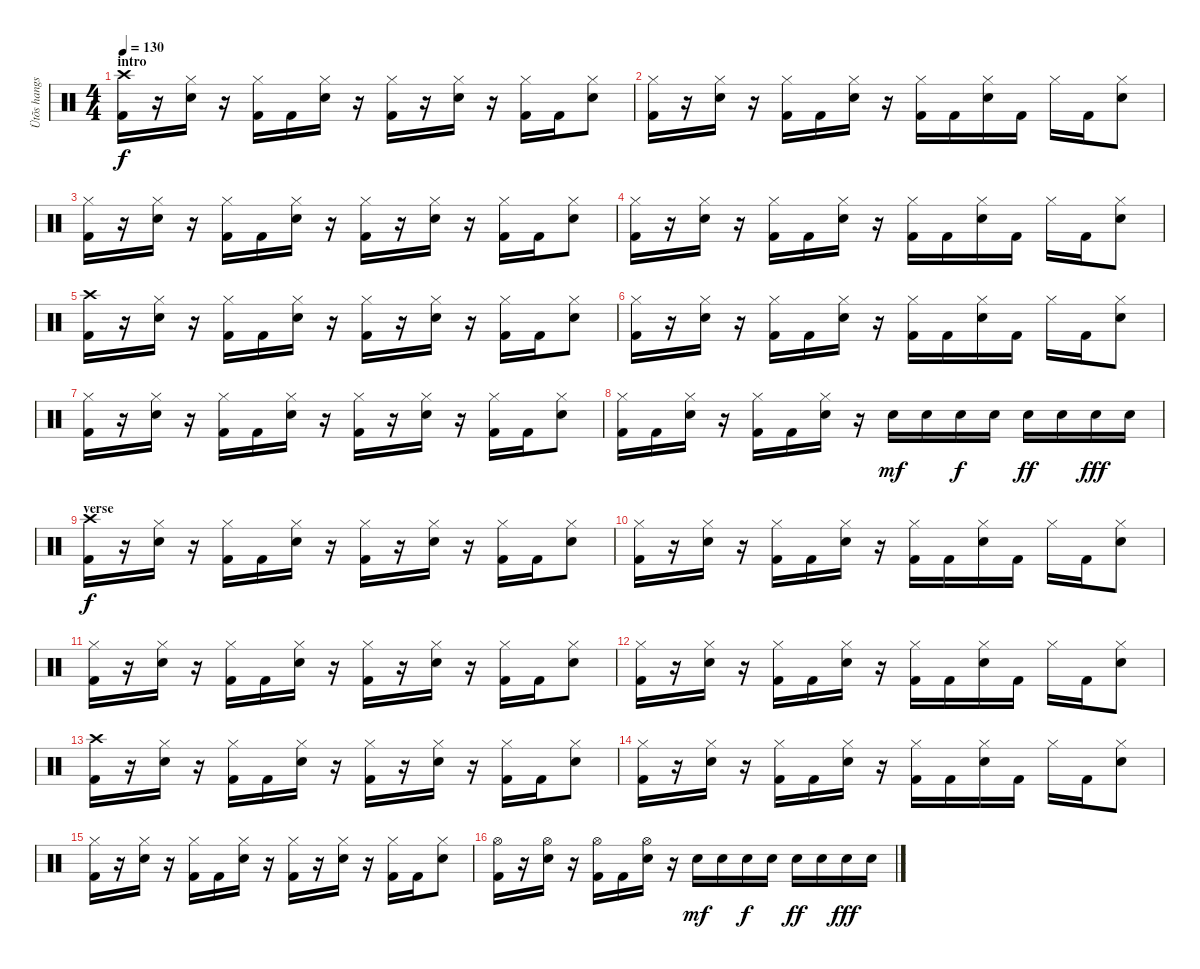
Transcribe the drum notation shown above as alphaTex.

\track ("Ütõs hangszer" "Ütõs hangs") {instrument percussion}
\staff {score}
\articulation defaults
\ts (4 4)
\section ("" "intro")
\tempo 130
\clef neutral
\ks c
("Crash high (hit)" "Kick (hit) 2").16{dy f} r.16 ("Hi-Hat (closed)" "Snare (hit) 2").16 r.16 ("Hi-Hat (closed)" "Kick (hit) 2").16 "Kick (hit) 2".16 ("Hi-Hat (closed)" "Snare (hit) 2").16 r.16 ("Hi-Hat (closed)" "Kick (hit) 2").16 r.16 ("Hi-Hat (closed)" "Snare (hit) 2").16 r.16 ("Hi-Hat (closed)" "Kick (hit) 2").16 "Kick (hit) 2".16 ("Hi-Hat (closed)" "Snare (hit) 2").8 |
("Hi-Hat (closed)" "Kick (hit) 2").16 r.16 ("Hi-Hat (closed)" "Snare (hit) 2").16 r.16 ("Hi-Hat (closed)" "Kick (hit) 2").16 "Kick (hit) 2".16 ("Hi-Hat (closed)" "Snare (hit) 2").16 r.16 ("Hi-Hat (closed)" "Kick (hit) 2").16 "Kick (hit) 2".16 ("Hi-Hat (closed)" "Snare (hit) 2").16 "Kick (hit) 2".16 "Hi-Hat (closed)".16 "Kick (hit) 2".16 ("Hi-Hat (closed)" "Snare (hit) 2").8 |
("Hi-Hat (closed)" "Kick (hit) 2").16 r.16 ("Hi-Hat (closed)" "Snare (hit) 2").16 r.16 ("Hi-Hat (closed)" "Kick (hit) 2").16 "Kick (hit) 2".16 ("Hi-Hat (closed)" "Snare (hit) 2").16 r.16 ("Hi-Hat (closed)" "Kick (hit) 2").16 r.16 ("Hi-Hat (closed)" "Snare (hit) 2").16 r.16 ("Hi-Hat (closed)" "Kick (hit) 2").16 "Kick (hit) 2".16 ("Hi-Hat (closed)" "Snare (hit) 2").8 |
("Hi-Hat (closed)" "Kick (hit) 2").16 r.16 ("Hi-Hat (closed)" "Snare (hit) 2").16 r.16 ("Hi-Hat (closed)" "Kick (hit) 2").16 "Kick (hit) 2".16 ("Hi-Hat (closed)" "Snare (hit) 2").16 r.16 ("Hi-Hat (closed)" "Kick (hit) 2").16 "Kick (hit) 2".16 ("Hi-Hat (closed)" "Snare (hit) 2").16 "Kick (hit) 2".16 "Hi-Hat (closed)".16 "Kick (hit) 2".16 ("Hi-Hat (closed)" "Snare (hit) 2").8 |
("Crash high (hit)" "Kick (hit) 2").16 r.16 ("Hi-Hat (closed)" "Snare (hit) 2").16 r.16 ("Hi-Hat (closed)" "Kick (hit) 2").16 "Kick (hit) 2".16 ("Hi-Hat (closed)" "Snare (hit) 2").16 r.16 ("Hi-Hat (closed)" "Kick (hit) 2").16 r.16 ("Hi-Hat (closed)" "Snare (hit) 2").16 r.16 ("Hi-Hat (closed)" "Kick (hit) 2").16 "Kick (hit) 2".16 ("Hi-Hat (closed)" "Snare (hit) 2").8 |
("Hi-Hat (closed)" "Kick (hit) 2").16 r.16 ("Hi-Hat (closed)" "Snare (hit) 2").16 r.16 ("Hi-Hat (closed)" "Kick (hit) 2").16 "Kick (hit) 2".16 ("Hi-Hat (closed)" "Snare (hit) 2").16 r.16 ("Hi-Hat (closed)" "Kick (hit) 2").16 "Kick (hit) 2".16 ("Hi-Hat (closed)" "Snare (hit) 2").16 "Kick (hit) 2".16 "Hi-Hat (closed)".16 "Kick (hit) 2".16 ("Hi-Hat (closed)" "Snare (hit) 2").8 |
("Hi-Hat (closed)" "Kick (hit) 2").16 r.16 ("Hi-Hat (closed)" "Snare (hit) 2").16 r.16 ("Hi-Hat (closed)" "Kick (hit) 2").16 "Kick (hit) 2".16 ("Hi-Hat (closed)" "Snare (hit) 2").16 r.16 ("Hi-Hat (closed)" "Kick (hit) 2").16 r.16 ("Hi-Hat (closed)" "Snare (hit) 2").16 r.16 ("Hi-Hat (closed)" "Kick (hit) 2").16 "Kick (hit) 2".16 ("Hi-Hat (closed)" "Snare (hit) 2").8 |
("Hi-Hat (closed)" "Kick (hit) 2").16 "Kick (hit) 2".16 ("Hi-Hat (closed)" "Snare (hit) 2").16 r.16 ("Hi-Hat (closed)" "Kick (hit) 2").16 "Kick (hit) 2".16 ("Hi-Hat (closed)" "Snare (hit) 2").16 r.16 "Snare (hit) 2".16{dy mf} "Snare (hit) 2".16 "Snare (hit) 2".16{dy f} "Snare (hit) 2".16 "Snare (hit) 2".16{dy ff} "Snare (hit) 2".16 "Snare (hit) 2".16{dy fff} "Snare (hit) 2".16 |
\section ("" "verse")
("Crash high (hit)" "Kick (hit) 2").16{dy f} r.16 ("Hi-Hat (closed)" "Snare (hit) 2").16 r.16 ("Hi-Hat (closed)" "Kick (hit) 2").16 "Kick (hit) 2".16 ("Hi-Hat (closed)" "Snare (hit) 2").16 r.16 ("Hi-Hat (closed)" "Kick (hit) 2").16 r.16 ("Hi-Hat (closed)" "Snare (hit) 2").16 r.16 ("Hi-Hat (closed)" "Kick (hit) 2").16 "Kick (hit) 2".16 ("Hi-Hat (closed)" "Snare (hit) 2").8 |
("Hi-Hat (closed)" "Kick (hit) 2").16 r.16 ("Hi-Hat (closed)" "Snare (hit) 2").16 r.16 ("Hi-Hat (closed)" "Kick (hit) 2").16 "Kick (hit) 2".16 ("Hi-Hat (closed)" "Snare (hit) 2").16 r.16 ("Hi-Hat (closed)" "Kick (hit) 2").16 "Kick (hit) 2".16 ("Hi-Hat (closed)" "Snare (hit) 2").16 "Kick (hit) 2".16 "Hi-Hat (closed)".16 "Kick (hit) 2".16 ("Hi-Hat (closed)" "Snare (hit) 2").8 |
("Hi-Hat (closed)" "Kick (hit) 2").16 r.16 ("Hi-Hat (closed)" "Snare (hit) 2").16 r.16 ("Hi-Hat (closed)" "Kick (hit) 2").16 "Kick (hit) 2".16 ("Hi-Hat (closed)" "Snare (hit) 2").16 r.16 ("Hi-Hat (closed)" "Kick (hit) 2").16 r.16 ("Hi-Hat (closed)" "Snare (hit) 2").16 r.16 ("Hi-Hat (closed)" "Kick (hit) 2").16 "Kick (hit) 2".16 ("Hi-Hat (closed)" "Snare (hit) 2").8 |
("Hi-Hat (closed)" "Kick (hit) 2").16 r.16 ("Hi-Hat (closed)" "Snare (hit) 2").16 r.16 ("Hi-Hat (closed)" "Kick (hit) 2").16 "Kick (hit) 2".16 ("Hi-Hat (closed)" "Snare (hit) 2").16 r.16 ("Hi-Hat (closed)" "Kick (hit) 2").16 "Kick (hit) 2".16 ("Hi-Hat (closed)" "Snare (hit) 2").16 "Kick (hit) 2".16 "Hi-Hat (closed)".16 "Kick (hit) 2".16 ("Hi-Hat (closed)" "Snare (hit) 2").8 |
("Crash high (hit)" "Kick (hit) 2").16 r.16 ("Hi-Hat (closed)" "Snare (hit) 2").16 r.16 ("Hi-Hat (closed)" "Kick (hit) 2").16 "Kick (hit) 2".16 ("Hi-Hat (closed)" "Snare (hit) 2").16 r.16 ("Hi-Hat (closed)" "Kick (hit) 2").16 r.16 ("Hi-Hat (closed)" "Snare (hit) 2").16 r.16 ("Hi-Hat (closed)" "Kick (hit) 2").16 "Kick (hit) 2".16 ("Hi-Hat (closed)" "Snare (hit) 2").8 |
("Hi-Hat (closed)" "Kick (hit) 2").16 r.16 ("Hi-Hat (closed)" "Snare (hit) 2").16 r.16 ("Hi-Hat (closed)" "Kick (hit) 2").16 "Kick (hit) 2".16 ("Hi-Hat (closed)" "Snare (hit) 2").16 r.16 ("Hi-Hat (closed)" "Kick (hit) 2").16 "Kick (hit) 2".16 ("Hi-Hat (closed)" "Snare (hit) 2").16 "Kick (hit) 2".16 "Hi-Hat (closed)".16 "Kick (hit) 2".16 ("Hi-Hat (closed)" "Snare (hit) 2").8 |
("Hi-Hat (closed)" "Kick (hit) 2").16 r.16 ("Hi-Hat (closed)" "Snare (hit) 2").16 r.16 ("Hi-Hat (closed)" "Kick (hit) 2").16 "Kick (hit) 2".16 ("Hi-Hat (closed)" "Snare (hit) 2").16 r.16 ("Hi-Hat (closed)" "Kick (hit) 2").16 r.16 ("Hi-Hat (closed)" "Snare (hit) 2").16 r.16 ("Hi-Hat (closed)" "Kick (hit) 2").16 "Kick (hit) 2".16 ("Hi-Hat (closed)" "Snare (hit) 2").8 |
("Hi-Hat (open)" "Kick (hit) 2").16 r.16 ("Hi-Hat (open)" "Snare (hit) 2").16 r.16 ("Hi-Hat (open)" "Kick (hit) 2").16 "Kick (hit) 2".16 ("Hi-Hat (open)" "Snare (hit) 2").16 r.16 "Snare (hit) 2".16{dy mf} "Snare (hit) 2".16 "Snare (hit) 2".16{dy f} "Snare (hit) 2".16 "Snare (hit) 2".16{dy ff} "Snare (hit) 2".16 "Snare (hit) 2".16{dy fff} "Snare (hit) 2".16
